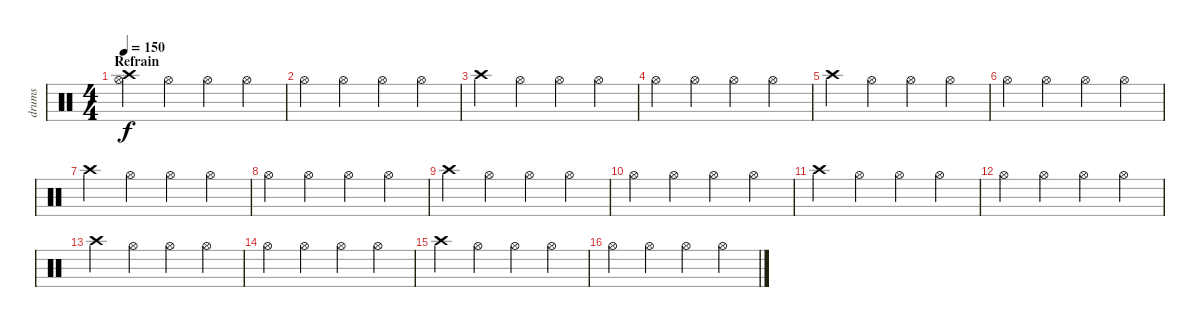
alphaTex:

\track ("drums" "drums") {instrument percussion}
\staff {score}
\articulation defaults
\ts (4 4)
\section ("" "Refrain")
\tempo 150
\clef neutral
\ks c
("Crash high (hit)" "Hi-Hat (open)").4{dy f} "Hi-Hat (open)".4 "Hi-Hat (open)".4 "Hi-Hat (open)".4 |
"Hi-Hat (open)".4 "Hi-Hat (open)".4 "Hi-Hat (open)".4 "Hi-Hat (open)".4 |
"Crash high (hit)".4 "Hi-Hat (open)".4 "Hi-Hat (open)".4 "Hi-Hat (open)".4 |
"Hi-Hat (open)".4 "Hi-Hat (open)".4 "Hi-Hat (open)".4 "Hi-Hat (open)".4 |
"Crash high (hit)".4 "Hi-Hat (open)".4 "Hi-Hat (open)".4 "Hi-Hat (open)".4 |
"Hi-Hat (open)".4 "Hi-Hat (open)".4 "Hi-Hat (open)".4 "Hi-Hat (open)".4 |
"Crash high (hit)".4 "Hi-Hat (open)".4 "Hi-Hat (open)".4 "Hi-Hat (open)".4 |
"Hi-Hat (open)".4 "Hi-Hat (open)".4 "Hi-Hat (open)".4 "Hi-Hat (open)".4 |
"Crash high (hit)".4 "Hi-Hat (open)".4 "Hi-Hat (open)".4 "Hi-Hat (open)".4 |
"Hi-Hat (open)".4 "Hi-Hat (open)".4 "Hi-Hat (open)".4 "Hi-Hat (open)".4 |
"Crash high (hit)".4 "Hi-Hat (open)".4 "Hi-Hat (open)".4 "Hi-Hat (open)".4 |
"Hi-Hat (open)".4 "Hi-Hat (open)".4 "Hi-Hat (open)".4 "Hi-Hat (open)".4 |
"Crash high (hit)".4 "Hi-Hat (open)".4 "Hi-Hat (open)".4 "Hi-Hat (open)".4 |
"Hi-Hat (open)".4 "Hi-Hat (open)".4 "Hi-Hat (open)".4 "Hi-Hat (open)".4 |
"Crash high (hit)".4 "Hi-Hat (open)".4 "Hi-Hat (open)".4 "Hi-Hat (open)".4 |
"Hi-Hat (open)".4 "Hi-Hat (open)".4 "Hi-Hat (open)".4 "Hi-Hat (open)".4
